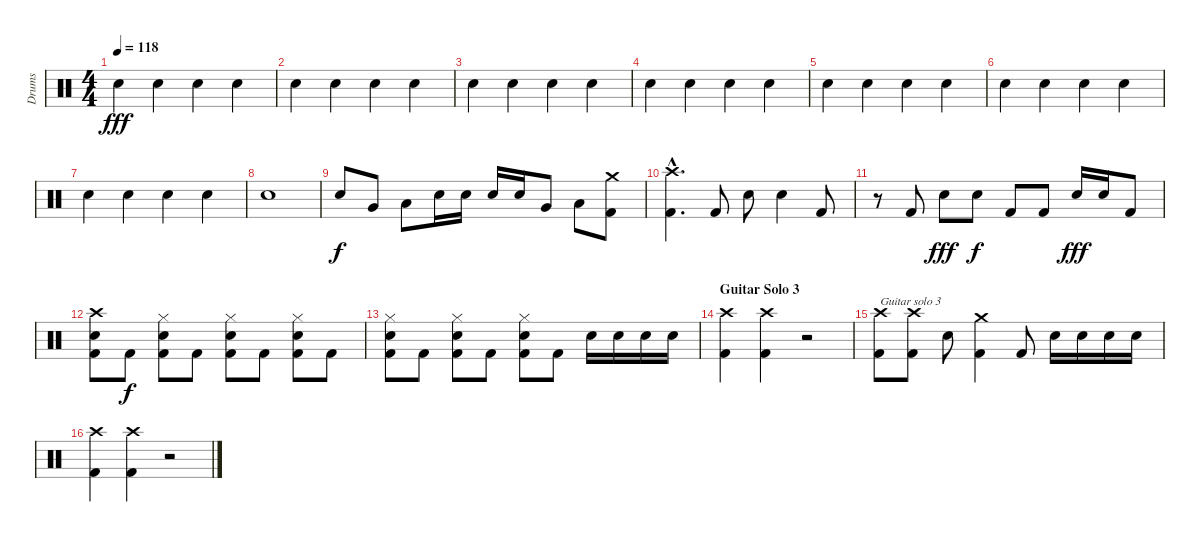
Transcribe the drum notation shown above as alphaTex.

\track ("Drums" "Drums") {instrument percussion}
\staff {score}
\articulation defaults
\ts (4 4)
\tempo 118
\clef neutral
\ks c "Hand Clap (hit)".4{dy fff} "Hand Clap (hit)".4 "Hand Clap (hit)".4 "Hand Clap (hit)".4
|
"Hand Clap (hit)".4 "Hand Clap (hit)".4 "Hand Clap (hit)".4 "Hand Clap (hit)".4 |
"Hand Clap (hit)".4 "Hand Clap (hit)".4 "Hand Clap (hit)".4 "Hand Clap (hit)".4 |
"Hand Clap (hit)".4 "Hand Clap (hit)".4 "Hand Clap (hit)".4 "Hand Clap (hit)".4 |
"Hand Clap (hit)".4 "Hand Clap (hit)".4 "Hand Clap (hit)".4 "Hand Clap (hit)".4 |
"Hand Clap (hit)".4 "Hand Clap (hit)".4 "Hand Clap (hit)".4 "Hand Clap (hit)".4 |
"Hand Clap (hit)".4 "Hand Clap (hit)".4 "Hand Clap (hit)".4 "Hand Clap (hit)".4 |
"Hand Clap (hit)".1{volume 13} |
"Snare (hit) 2".8{dy f} "Very Low Tom (hit)".8 "Low Floor Tom (hit)".8 "Snare (hit) 2".16 "Snare (hit) 2".16 "Snare (hit) 2".16 "Snare (hit) 2".16 "Very Low Tom (hit)".8 "Low Floor Tom (hit)".8 ("Crash medium (hit)" "Kick (hit) 2").8 |
("Crash high (hit)"{hac} "Kick (hit) 2"{hac}).4{d} "Kick (hit) 2".8 "Snare (hit) 2".8 "Snare (hit) 2".4 "Kick (hit) 2".8 |
r.8 "Kick (hit) 2".8 "Snare (hit) 2".8{dy fff} "Snare (hit) 2".8{dy f} "Kick (hit) 2".8 "Kick (hit) 2".8 "Snare (hit) 2".16{dy fff} "Snare (hit) 2".16 "Kick (hit) 2".8 |
("Crash high (hit)" "Snare (hit) 2" "Kick (hit) 2").8 "Kick (hit) 2".8{dy f} ("Hi-Hat (closed)" "Snare (hit) 2" "Kick (hit) 2").8 "Kick (hit) 2".8 ("Hi-Hat (closed)" "Snare (hit) 2" "Kick (hit) 2").8 "Kick (hit) 2".8 ("Hi-Hat (closed)" "Snare (hit) 2" "Kick (hit) 2").8 "Kick (hit) 2".8 |
("Hi-Hat (closed)" "Snare (hit) 2" "Kick (hit) 2").8 "Kick (hit) 2".8 ("Hi-Hat (closed)" "Snare (hit) 2" "Kick (hit) 2").8 "Kick (hit) 2".8 ("Hi-Hat (closed)" "Snare (hit) 2" "Kick (hit) 2").8 "Kick (hit) 2".8 "Snare (hit) 2".16 "Snare (hit) 2".16 "Snare (hit) 2".16 "Snare (hit) 2".16 |
\section ("" "Guitar Solo 3")
("Crash high (hit)" "Kick (hit) 2").4 ("Crash high (hit)" "Kick (hit) 2").4 r.2 |
("Crash high (hit)" "Kick (hit) 2").8{txt "Guitar solo 3"} ("Crash high (hit)" "Kick (hit) 2").8 "Snare (hit) 2".8 ("Crash medium (hit)" "Kick (hit) 2").4 "Kick (hit) 2".8 "Snare (hit) 2".16 "Snare (hit) 2".16 "Snare (hit) 2".16 "Snare (hit) 2".16 |
("Crash high (hit)" "Kick (hit) 2").4 ("Crash high (hit)" "Kick (hit) 2").4 r.2
